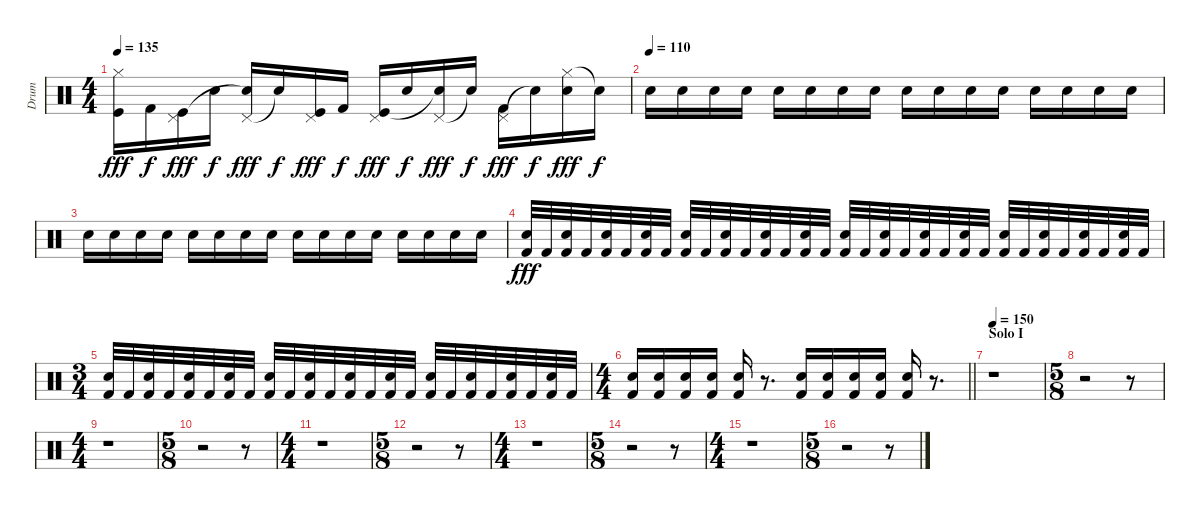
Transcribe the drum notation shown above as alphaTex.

\track ("Drum" "Drum") {instrument percussion}
\staff {score}
\articulation defaults
\ts (4 4)
\tempo 135
\clef neutral
\ks c
("Hi-Hat (closed)" "Kick (hit)").16{dy fff} "Kick (hit) 2".16{dy f} ("Pedal Hi-Hat (hit)" "Kick (hit)").16{dy fff} "Electric Snare (hit)".16{dy f} ("Pedal Hi-Hat (hit)" "Snare (hit)"{t}).16{dy fff} "Snare (hit)"{t}.16{dy f} ("Pedal Hi-Hat (hit)" "Kick (hit)").16{dy fff} "Kick (hit) 2".16{dy f} ("Pedal Hi-Hat (hit)" "Kick (hit)").16{dy fff} "Electric Snare (hit)".16{dy f} ("Pedal Hi-Hat (hit)" "Snare (hit)"{t}).16{dy fff} "Snare (hit)"{t}.16{dy f} ("Pedal Hi-Hat (hit)" "Kick (hit) 2").16{dy fff} "Snare (hit)"{t}.16{dy f} ("Hi-Hat (closed)" "Electric Snare (hit)").16{dy fff} "Snare (hit)"{t}.16{dy f} |
\tempo (110)
"Electric Snare (hit)".16 "Snare (hit) 2".16 "Electric Snare (hit)".16 "Snare (hit) 2".16 "Electric Snare (hit)".16 "Snare (hit) 2".16 "Electric Snare (hit)".16 "Snare (hit) 2".16 "Electric Snare (hit)".16 "Snare (hit) 2".16 "Electric Snare (hit)".16 "Snare (hit) 2".16 "Electric Snare (hit)".16 "Snare (hit) 2".16 "Electric Snare (hit)".16 "Snare (hit) 2".16 |
"Electric Snare (hit)".16 "Snare (hit) 2".16 "Electric Snare (hit)".16 "Snare (hit) 2".16 "Electric Snare (hit)".16 "Snare (hit) 2".16 "Electric Snare (hit)".16 "Snare (hit) 2".16 "Electric Snare (hit)".16 "Snare (hit) 2".16 "Electric Snare (hit)".16 "Snare (hit) 2".16 "Electric Snare (hit)".16 "Snare (hit) 2".16 "Electric Snare (hit)".16 "Snare (hit) 2".16 |
("Electric Snare (hit)" "Kick (hit) 2").32{dy fff} "Kick (hit) 2".32 ("Snare (hit) 2" "Kick (hit) 2").32 "Kick (hit) 2".32 ("Electric Snare (hit)" "Kick (hit) 2").32 "Kick (hit) 2".32 ("Snare (hit) 2" "Kick (hit) 2").32 "Kick (hit) 2".32 ("Electric Snare (hit)" "Kick (hit) 2").32 "Kick (hit) 2".32 ("Snare (hit) 2" "Kick (hit) 2").32 "Kick (hit) 2".32 ("Electric Snare (hit)" "Kick (hit) 2").32 "Kick (hit) 2".32 ("Snare (hit) 2" "Kick (hit) 2").32 "Kick (hit) 2".32 ("Electric Snare (hit)" "Kick (hit) 2").32 "Kick (hit) 2".32 ("Snare (hit) 2" "Kick (hit) 2").32 "Kick (hit) 2".32 ("Electric Snare (hit)" "Kick (hit) 2").32 "Kick (hit) 2".32 ("Snare (hit) 2" "Kick (hit) 2").32 "Kick (hit) 2".32 ("Electric Snare (hit)" "Kick (hit) 2").32 "Kick (hit) 2".32 ("Snare (hit) 2" "Kick (hit) 2").32 "Kick (hit) 2".32 ("Electric Snare (hit)" "Kick (hit) 2").32 "Kick (hit) 2".32 ("Snare (hit) 2" "Kick (hit) 2").32 "Kick (hit) 2".32 |
\ts (3 4)
("Electric Snare (hit)" "Kick (hit) 2").32 "Kick (hit) 2".32 ("Snare (hit) 2" "Kick (hit) 2").32 "Kick (hit) 2".32 ("Electric Snare (hit)" "Kick (hit) 2").32 "Kick (hit) 2".32 ("Snare (hit) 2" "Kick (hit) 2").32 "Kick (hit) 2".32 ("Electric Snare (hit)" "Kick (hit) 2").32 "Kick (hit) 2".32 ("Snare (hit) 2" "Kick (hit) 2").32 "Kick (hit) 2".32 ("Electric Snare (hit)" "Kick (hit) 2").32 "Kick (hit) 2".32 ("Snare (hit) 2" "Kick (hit) 2").32 "Kick (hit) 2".32 ("Electric Snare (hit)" "Kick (hit) 2").32 "Kick (hit) 2".32 ("Snare (hit) 2" "Kick (hit) 2").32 "Kick (hit) 2".32 ("Electric Snare (hit)" "Kick (hit) 2").32 "Kick (hit) 2".32 ("Snare (hit) 2" "Kick (hit) 2").32 "Kick (hit) 2".32 |
\ts (4 4)
\barLineRight lightlight
("Snare (hit) 2" "Kick (hit) 2").16 ("Snare (hit) 2" "Kick (hit) 2").16 ("Snare (hit) 2" "Kick (hit) 2").16 ("Snare (hit) 2" "Kick (hit) 2").16 ("Snare (hit) 2" "Kick (hit) 2").16 r.8{d} ("Snare (hit) 2" "Kick (hit) 2").16 ("Snare (hit) 2" "Kick (hit) 2").16 ("Snare (hit) 2" "Kick (hit) 2").16 ("Snare (hit) 2" "Kick (hit) 2").16 ("Snare (hit) 2" "Kick (hit) 2").16 r.8{d} |
\section ("" "Solo I")
\tempo 150
r.1 |
\ts (5 8)
r.2 r.8 |
\ts (4 4)
r.1 |
\ts (5 8)
r.2 r.8 |
\ts (4 4)
r.1 |
\ts (5 8)
r.2 r.8 |
\ts (4 4)
r.1 |
\ts (5 8)
r.2 r.8 |
\ts (4 4)
r.1 |
\ts (5 8)
r.2 r.8
